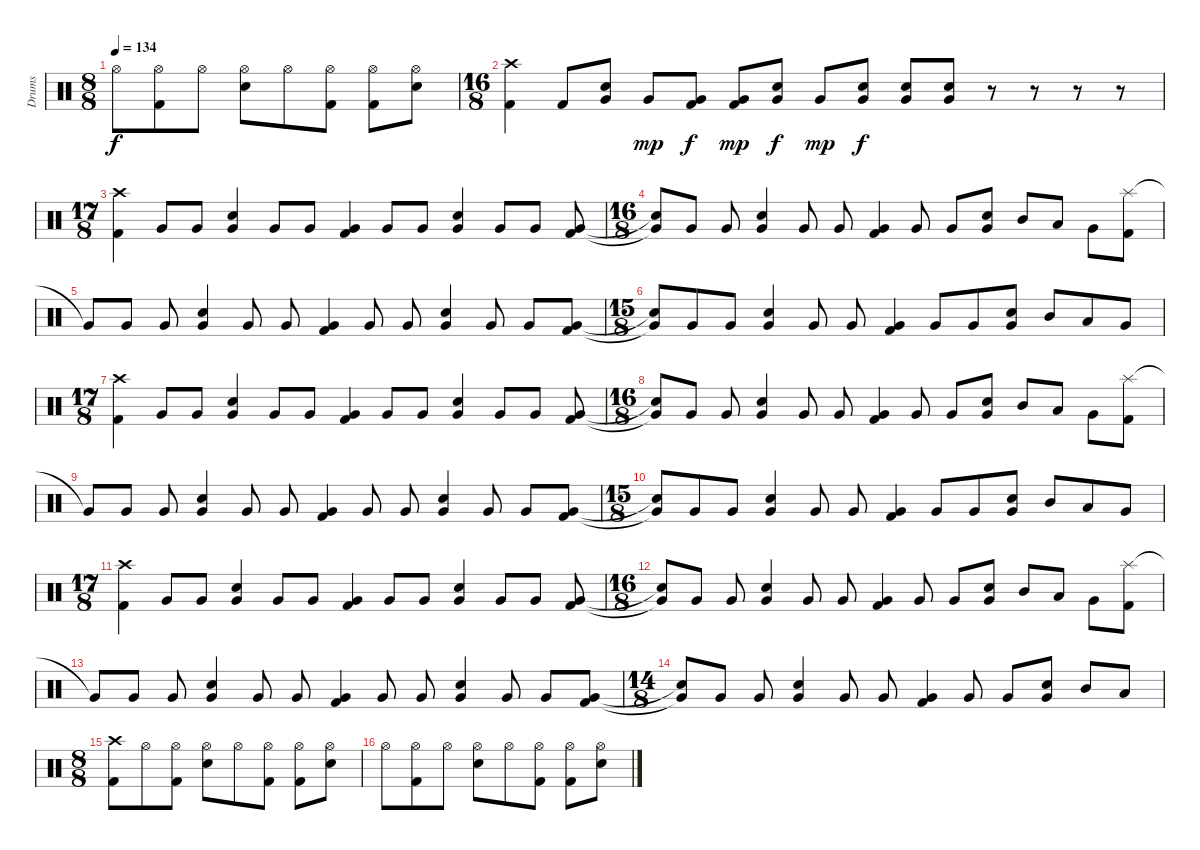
\track ("Drums" "Drums") {instrument percussion}
\staff {score}
\articulation defaults
\ts (8 8)
\tempo 134
\clef neutral
\ks c "Hi-Hat (open)".8{dy f}
("Hi-Hat (open)" "Kick (hit) 2").8 "Hi-Hat (open)".8 ("Hi-Hat (open)" "Snare (hit) 2").8 "Hi-Hat (open)".8 ("Hi-Hat (open)" "Kick (hit) 2").8 ("Hi-Hat (open)" "Kick (hit) 2").8 ("Hi-Hat (open)" "Snare (hit) 2").8 |
\ts (16 8)
("Crash high (hit)" "Kick (hit) 2").4 "Kick (hit) 2".8 ("Very Low Tom (hit)" "Snare (hit) 2").8 "Very Low Tom (hit)".8{dy mp} ("Very Low Tom (hit)" "Kick (hit) 2").8{dy f} ("Very Low Tom (hit)" "Kick (hit) 2").8{dy mp} ("Very Low Tom (hit)" "Snare (hit) 2").8{dy f} "Very Low Tom (hit)".8{dy mp} ("Very Low Tom (hit)" "Snare (hit) 2").8{dy f} ("Very Low Tom (hit)" "Snare (hit) 2").8 ("Very Low Tom (hit)" "Snare (hit) 2").8 r.8 r.8 r.8 r.8 |
\ts (17 8)
("Crash high (hit)" "Kick (hit) 2").4 "Very Low Tom (hit)".8 "Very Low Tom (hit)".8 ("Very Low Tom (hit)" "Snare (hit) 2").4 "Very Low Tom (hit)".8 "Very Low Tom (hit)".8 ("Very Low Tom (hit)" "Kick (hit) 2").4 "Very Low Tom (hit)".8 "Very Low Tom (hit)".8 ("Very Low Tom (hit)" "Snare (hit) 2").4 "Very Low Tom (hit)".8 "Very Low Tom (hit)".8 ("Very Low Tom (hit)" "Kick (hit) 2").8 |
\ts (16 8)
("Snare (hit)"{t} "Very Low Tom (hit)"{t}).8 "Very Low Tom (hit)".8 "Very Low Tom (hit)".8 ("Very Low Tom (hit)" "Snare (hit) 2").4 "Very Low Tom (hit)".8 "Very Low Tom (hit)".8 ("Very Low Tom (hit)" "Kick (hit) 2").4 "Very Low Tom (hit)".8 "Very Low Tom (hit)".8 ("Very Low Tom (hit)" "Snare (hit) 2").8 "Mid Tom (hit)".8 "Low Tom (hit)".8 "Very Low Tom (hit)".8 ("Splash (hit)" "Kick (hit) 2").8 |
"Very Low Tom (hit)"{t}.8 "Very Low Tom (hit)".8 "Very Low Tom (hit)".8 ("Very Low Tom (hit)" "Snare (hit) 2").4 "Very Low Tom (hit)".8 "Very Low Tom (hit)".8 ("Very Low Tom (hit)" "Kick (hit) 2").4 "Very Low Tom (hit)".8 "Very Low Tom (hit)".8 ("Very Low Tom (hit)" "Snare (hit) 2").4 "Very Low Tom (hit)".8 "Very Low Tom (hit)".8 ("Very Low Tom (hit)" "Kick (hit) 2").8 |
\ts (15 8)
("Snare (hit)"{t} "Very Low Tom (hit)"{t}).8 "Very Low Tom (hit)".8 "Very Low Tom (hit)".8 ("Very Low Tom (hit)" "Snare (hit) 2").4 "Very Low Tom (hit)".8 "Very Low Tom (hit)".8 ("Very Low Tom (hit)" "Kick (hit) 2").4 "Very Low Tom (hit)".8 "Very Low Tom (hit)".8 ("Very Low Tom (hit)" "Snare (hit) 2").8 "Mid Tom (hit)".8 "Low Tom (hit)".8 "Very Low Tom (hit)".8 |
\ts (17 8)
("Crash high (hit)" "Kick (hit) 2").4 "Very Low Tom (hit)".8 "Very Low Tom (hit)".8 ("Very Low Tom (hit)" "Snare (hit) 2").4 "Very Low Tom (hit)".8 "Very Low Tom (hit)".8 ("Very Low Tom (hit)" "Kick (hit) 2").4 "Very Low Tom (hit)".8 "Very Low Tom (hit)".8 ("Very Low Tom (hit)" "Snare (hit) 2").4 "Very Low Tom (hit)".8 "Very Low Tom (hit)".8 ("Very Low Tom (hit)" "Kick (hit) 2").8 |
\ts (16 8)
("Snare (hit)"{t} "Very Low Tom (hit)"{t}).8 "Very Low Tom (hit)".8 "Very Low Tom (hit)".8 ("Very Low Tom (hit)" "Snare (hit) 2").4 "Very Low Tom (hit)".8 "Very Low Tom (hit)".8 ("Very Low Tom (hit)" "Kick (hit) 2").4 "Very Low Tom (hit)".8 "Very Low Tom (hit)".8 ("Very Low Tom (hit)" "Snare (hit) 2").8 "Mid Tom (hit)".8 "Low Tom (hit)".8 "Very Low Tom (hit)".8 ("Splash (hit)" "Kick (hit) 2").8 |
"Very Low Tom (hit)"{t}.8 "Very Low Tom (hit)".8 "Very Low Tom (hit)".8 ("Very Low Tom (hit)" "Snare (hit) 2").4 "Very Low Tom (hit)".8 "Very Low Tom (hit)".8 ("Very Low Tom (hit)" "Kick (hit) 2").4 "Very Low Tom (hit)".8 "Very Low Tom (hit)".8 ("Very Low Tom (hit)" "Snare (hit) 2").4 "Very Low Tom (hit)".8 "Very Low Tom (hit)".8 ("Very Low Tom (hit)" "Kick (hit) 2").8 |
\ts (15 8)
("Snare (hit)"{t} "Very Low Tom (hit)"{t}).8 "Very Low Tom (hit)".8 "Very Low Tom (hit)".8 ("Very Low Tom (hit)" "Snare (hit) 2").4 "Very Low Tom (hit)".8 "Very Low Tom (hit)".8 ("Very Low Tom (hit)" "Kick (hit) 2").4 "Very Low Tom (hit)".8 "Very Low Tom (hit)".8 ("Very Low Tom (hit)" "Snare (hit) 2").8 "Mid Tom (hit)".8 "Low Tom (hit)".8 "Very Low Tom (hit)".8 |
\ts (17 8)
("Crash high (hit)" "Kick (hit) 2").4 "Very Low Tom (hit)".8 "Very Low Tom (hit)".8 ("Very Low Tom (hit)" "Snare (hit) 2").4 "Very Low Tom (hit)".8 "Very Low Tom (hit)".8 ("Very Low Tom (hit)" "Kick (hit) 2").4 "Very Low Tom (hit)".8 "Very Low Tom (hit)".8 ("Very Low Tom (hit)" "Snare (hit) 2").4 "Very Low Tom (hit)".8 "Very Low Tom (hit)".8 ("Very Low Tom (hit)" "Kick (hit) 2").8 |
\ts (16 8)
("Snare (hit)"{t} "Very Low Tom (hit)"{t}).8 "Very Low Tom (hit)".8 "Very Low Tom (hit)".8 ("Very Low Tom (hit)" "Snare (hit) 2").4 "Very Low Tom (hit)".8 "Very Low Tom (hit)".8 ("Very Low Tom (hit)" "Kick (hit) 2").4 "Very Low Tom (hit)".8 "Very Low Tom (hit)".8 ("Very Low Tom (hit)" "Snare (hit) 2").8 "Mid Tom (hit)".8 "Low Tom (hit)".8 "Very Low Tom (hit)".8 ("Splash (hit)" "Kick (hit) 2").8 |
"Very Low Tom (hit)"{t}.8 "Very Low Tom (hit)".8 "Very Low Tom (hit)".8 ("Very Low Tom (hit)" "Snare (hit) 2").4 "Very Low Tom (hit)".8 "Very Low Tom (hit)".8 ("Very Low Tom (hit)" "Kick (hit) 2").4 "Very Low Tom (hit)".8 "Very Low Tom (hit)".8 ("Very Low Tom (hit)" "Snare (hit) 2").4 "Very Low Tom (hit)".8 "Very Low Tom (hit)".8 ("Very Low Tom (hit)" "Kick (hit) 2").8 |
\ts (14 8)
("Snare (hit)"{t} "Very Low Tom (hit)"{t}).8 "Very Low Tom (hit)".8 "Very Low Tom (hit)".8 ("Very Low Tom (hit)" "Snare (hit) 2").4 "Very Low Tom (hit)".8 "Very Low Tom (hit)".8 ("Very Low Tom (hit)" "Kick (hit) 2").4 "Very Low Tom (hit)".8 "Very Low Tom (hit)".8 ("Very Low Tom (hit)" "Snare (hit) 2").8 "Mid Tom (hit)".8 "Low Tom (hit)".8 |
\ts (8 8)
("Crash high (hit)" "Kick (hit) 2").8 "Hi-Hat (open)".8 ("Hi-Hat (open)" "Kick (hit) 2").8 ("Hi-Hat (open)" "Snare (hit) 2").8 "Hi-Hat (open)".8 ("Hi-Hat (open)" "Kick (hit) 2").8 ("Hi-Hat (open)" "Kick (hit) 2").8 ("Hi-Hat (open)" "Snare (hit) 2").8 |
"Hi-Hat (open)".8 ("Hi-Hat (open)" "Kick (hit) 2").8 "Hi-Hat (open)".8 ("Hi-Hat (open)" "Snare (hit) 2").8 "Hi-Hat (open)".8 ("Hi-Hat (open)" "Kick (hit) 2").8 ("Hi-Hat (open)" "Kick (hit) 2").8 ("Hi-Hat (open)" "Snare (hit) 2").8
